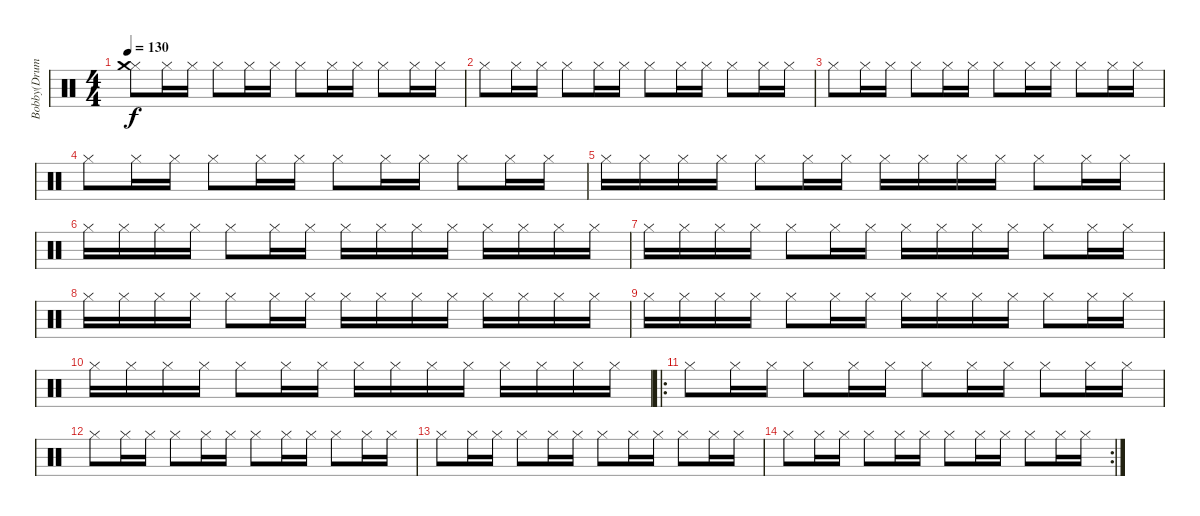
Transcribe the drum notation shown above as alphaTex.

\track ("Bobby(DrumSynth)" "Bobby(Drum") {instrument percussion}
\staff {score}
\articulation defaults
\ts (4 4)
\tempo 130
\clef neutral
\ks c
("Hi-Hat (closed)" "Crash medium (hit)").8{dy f} "Hi-Hat (closed)".16 "Hi-Hat (closed)".16 "Hi-Hat (closed)".8 "Hi-Hat (closed)".16 "Hi-Hat (closed)".16 "Hi-Hat (closed)".8 "Hi-Hat (closed)".16 "Hi-Hat (closed)".16 "Hi-Hat (closed)".8 "Hi-Hat (closed)".16 "Hi-Hat (closed)".16 |
"Hi-Hat (closed)".8 "Hi-Hat (closed)".16 "Hi-Hat (closed)".16 "Hi-Hat (closed)".8 "Hi-Hat (closed)".16 "Hi-Hat (closed)".16 "Hi-Hat (closed)".8 "Hi-Hat (closed)".16 "Hi-Hat (closed)".16 "Hi-Hat (closed)".8 "Hi-Hat (closed)".16 "Hi-Hat (closed)".16 |
"Hi-Hat (closed)".8 "Hi-Hat (closed)".16 "Hi-Hat (closed)".16 "Hi-Hat (closed)".8 "Hi-Hat (closed)".16 "Hi-Hat (closed)".16 "Hi-Hat (closed)".8 "Hi-Hat (closed)".16 "Hi-Hat (closed)".16 "Hi-Hat (closed)".8 "Hi-Hat (closed)".16 "Hi-Hat (closed)".16 |
"Hi-Hat (closed)".8 "Hi-Hat (closed)".16 "Hi-Hat (closed)".16 "Hi-Hat (closed)".8 "Hi-Hat (closed)".16 "Hi-Hat (closed)".16 "Hi-Hat (closed)".8 "Hi-Hat (closed)".16 "Hi-Hat (closed)".16 "Hi-Hat (closed)".8 "Hi-Hat (closed)".16 "Hi-Hat (closed)".16 |
"Hi-Hat (closed)".16 "Hi-Hat (closed)".16 "Hi-Hat (closed)".16 "Hi-Hat (closed)".16 "Hi-Hat (closed)".8 "Hi-Hat (closed)".16 "Hi-Hat (closed)".16 "Hi-Hat (closed)".16 "Hi-Hat (closed)".16 "Hi-Hat (closed)".16 "Hi-Hat (closed)".16 "Hi-Hat (closed)".8 "Hi-Hat (closed)".16 "Hi-Hat (closed)".16 |
"Hi-Hat (closed)".16 "Hi-Hat (closed)".16 "Hi-Hat (closed)".16 "Hi-Hat (closed)".16 "Hi-Hat (closed)".8 "Hi-Hat (closed)".16 "Hi-Hat (closed)".16 "Hi-Hat (closed)".16 "Hi-Hat (closed)".16 "Hi-Hat (closed)".16 "Hi-Hat (closed)".16 "Hi-Hat (closed)".16 "Hi-Hat (closed)".16 "Hi-Hat (closed)".16 "Hi-Hat (closed)".16 |
"Hi-Hat (closed)".16 "Hi-Hat (closed)".16 "Hi-Hat (closed)".16 "Hi-Hat (closed)".16 "Hi-Hat (closed)".8 "Hi-Hat (closed)".16 "Hi-Hat (closed)".16 "Hi-Hat (closed)".16 "Hi-Hat (closed)".16 "Hi-Hat (closed)".16 "Hi-Hat (closed)".16 "Hi-Hat (closed)".8 "Hi-Hat (closed)".16 "Hi-Hat (closed)".16 |
"Hi-Hat (closed)".16 "Hi-Hat (closed)".16 "Hi-Hat (closed)".16 "Hi-Hat (closed)".16 "Hi-Hat (closed)".8 "Hi-Hat (closed)".16 "Hi-Hat (closed)".16 "Hi-Hat (closed)".16 "Hi-Hat (closed)".16 "Hi-Hat (closed)".16 "Hi-Hat (closed)".16 "Hi-Hat (closed)".16 "Hi-Hat (closed)".16 "Hi-Hat (closed)".16 "Hi-Hat (closed)".16 |
"Hi-Hat (closed)".16 "Hi-Hat (closed)".16 "Hi-Hat (closed)".16 "Hi-Hat (closed)".16 "Hi-Hat (closed)".8 "Hi-Hat (closed)".16 "Hi-Hat (closed)".16 "Hi-Hat (closed)".16 "Hi-Hat (closed)".16 "Hi-Hat (closed)".16 "Hi-Hat (closed)".16 "Hi-Hat (closed)".8 "Hi-Hat (closed)".16 "Hi-Hat (closed)".16 |
"Hi-Hat (closed)".16 "Hi-Hat (closed)".16 "Hi-Hat (closed)".16 "Hi-Hat (closed)".16 "Hi-Hat (closed)".8 "Hi-Hat (closed)".16 "Hi-Hat (closed)".16 "Hi-Hat (closed)".16 "Hi-Hat (closed)".16 "Hi-Hat (closed)".16 "Hi-Hat (closed)".16 "Hi-Hat (closed)".16 "Hi-Hat (closed)".16 "Hi-Hat (closed)".16 "Hi-Hat (closed)".16 |
\ro "Hi-Hat (closed)".8 "Hi-Hat (closed)".16 "Hi-Hat (closed)".16 "Hi-Hat (closed)".8 "Hi-Hat (closed)".16 "Hi-Hat (closed)".16 "Hi-Hat (closed)".8 "Hi-Hat (closed)".16 "Hi-Hat (closed)".16 "Hi-Hat (closed)".8 "Hi-Hat (closed)".16 "Hi-Hat (closed)".16
|
"Hi-Hat (closed)".8 "Hi-Hat (closed)".16 "Hi-Hat (closed)".16 "Hi-Hat (closed)".8 "Hi-Hat (closed)".16 "Hi-Hat (closed)".16 "Hi-Hat (closed)".8 "Hi-Hat (closed)".16 "Hi-Hat (closed)".16 "Hi-Hat (closed)".8 "Hi-Hat (closed)".16 "Hi-Hat (closed)".16 |
"Hi-Hat (closed)".8 "Hi-Hat (closed)".16 "Hi-Hat (closed)".16 "Hi-Hat (closed)".8 "Hi-Hat (closed)".16 "Hi-Hat (closed)".16 "Hi-Hat (closed)".8 "Hi-Hat (closed)".16 "Hi-Hat (closed)".16 "Hi-Hat (closed)".8 "Hi-Hat (closed)".16 "Hi-Hat (closed)".16 |
\rc 2 "Hi-Hat (closed)".8 "Hi-Hat (closed)".16 "Hi-Hat (closed)".16 "Hi-Hat (closed)".8 "Hi-Hat (closed)".16 "Hi-Hat (closed)".16 "Hi-Hat (closed)".8 "Hi-Hat (closed)".16 "Hi-Hat (closed)".16 "Hi-Hat (closed)".8 "Hi-Hat (closed)".16 "Hi-Hat (closed)".16
